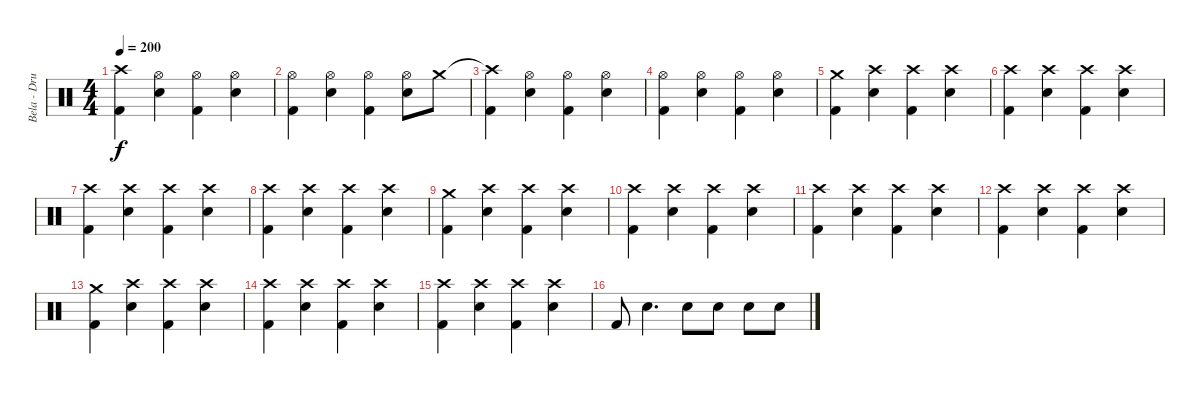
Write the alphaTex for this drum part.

\track ("Bela - Drums" "Bela - Dru") {instrument percussion}
\staff {score}
\articulation defaults
\ts (4 4)
\tempo 200
\clef neutral
\ks c
("Crash high (hit)"{t} "Kick (hit) 2").4{dy f} ("Hi-Hat (open)" "Snare (hit) 2").4 ("Hi-Hat (open)" "Kick (hit) 2").4 ("Hi-Hat (open)" "Snare (hit) 2").4 |
("Hi-Hat (open)" "Kick (hit) 2").4 ("Hi-Hat (open)" "Snare (hit) 2").4 ("Hi-Hat (open)" "Kick (hit) 2").4 ("Hi-Hat (open)" "Snare (hit) 2").8 "Crash medium (hit)".8 |
("Crash high (hit)"{t} "Kick (hit) 2").4 ("Hi-Hat (open)" "Snare (hit) 2").4 ("Hi-Hat (open)" "Kick (hit) 2").4 ("Hi-Hat (open)" "Snare (hit) 2").4 |
("Hi-Hat (open)" "Kick (hit) 2").4 ("Hi-Hat (open)" "Snare (hit) 2").4 ("Hi-Hat (open)" "Kick (hit) 2").4 ("Hi-Hat (open)" "Snare (hit) 2").4 |
("Crash medium (hit)" "Kick (hit) 2").4 ("Crash high (hit)" "Snare (hit) 2").4 ("Crash high (hit)" "Kick (hit) 2").4 ("Crash high (hit)" "Snare (hit) 2").4 |
("Crash high (hit)" "Kick (hit) 2").4 ("Crash high (hit)" "Snare (hit) 2").4 ("Crash high (hit)" "Kick (hit) 2").4 ("Crash high (hit)" "Snare (hit) 2").4 |
("Crash high (hit)" "Kick (hit) 2").4 ("Crash high (hit)" "Snare (hit) 2").4 ("Crash high (hit)" "Kick (hit) 2").4 ("Crash high (hit)" "Snare (hit) 2").4 |
("Crash high (hit)" "Kick (hit) 2").4 ("Crash high (hit)" "Snare (hit) 2").4 ("Crash high (hit)" "Kick (hit) 2").4 ("Crash high (hit)" "Snare (hit) 2").4 |
("Crash medium (hit)" "Kick (hit) 2").4 ("Crash high (hit)" "Snare (hit) 2").4 ("Crash high (hit)" "Kick (hit) 2").4 ("Crash high (hit)" "Snare (hit) 2").4 |
("Crash high (hit)" "Kick (hit) 2").4 ("Crash high (hit)" "Snare (hit) 2").4 ("Crash high (hit)" "Kick (hit) 2").4 ("Crash high (hit)" "Snare (hit) 2").4 |
("Crash high (hit)" "Kick (hit) 2").4 ("Crash high (hit)" "Snare (hit) 2").4 ("Crash high (hit)" "Kick (hit) 2").4 ("Crash high (hit)" "Snare (hit) 2").4 |
("Crash high (hit)" "Kick (hit) 2").4 ("Crash high (hit)" "Snare (hit) 2").4 ("Crash high (hit)" "Kick (hit) 2").4 ("Crash high (hit)" "Snare (hit) 2").4 |
("Crash medium (hit)" "Kick (hit) 2").4 ("Crash high (hit)" "Snare (hit) 2").4 ("Crash high (hit)" "Kick (hit) 2").4 ("Crash high (hit)" "Snare (hit) 2").4 |
("Crash high (hit)" "Kick (hit) 2").4 ("Crash high (hit)" "Snare (hit) 2").4 ("Crash high (hit)" "Kick (hit) 2").4 ("Crash high (hit)" "Snare (hit) 2").4 |
("Crash high (hit)" "Kick (hit) 2").4 ("Crash high (hit)" "Snare (hit) 2").4 ("Crash high (hit)" "Kick (hit) 2").4 ("Crash high (hit)" "Snare (hit) 2").4 |
"Kick (hit) 2".8 "Snare (hit) 2".4{d} "Snare (hit) 2".8 "Snare (hit) 2".8 "Snare (hit) 2".8 "Snare (hit) 2".8
